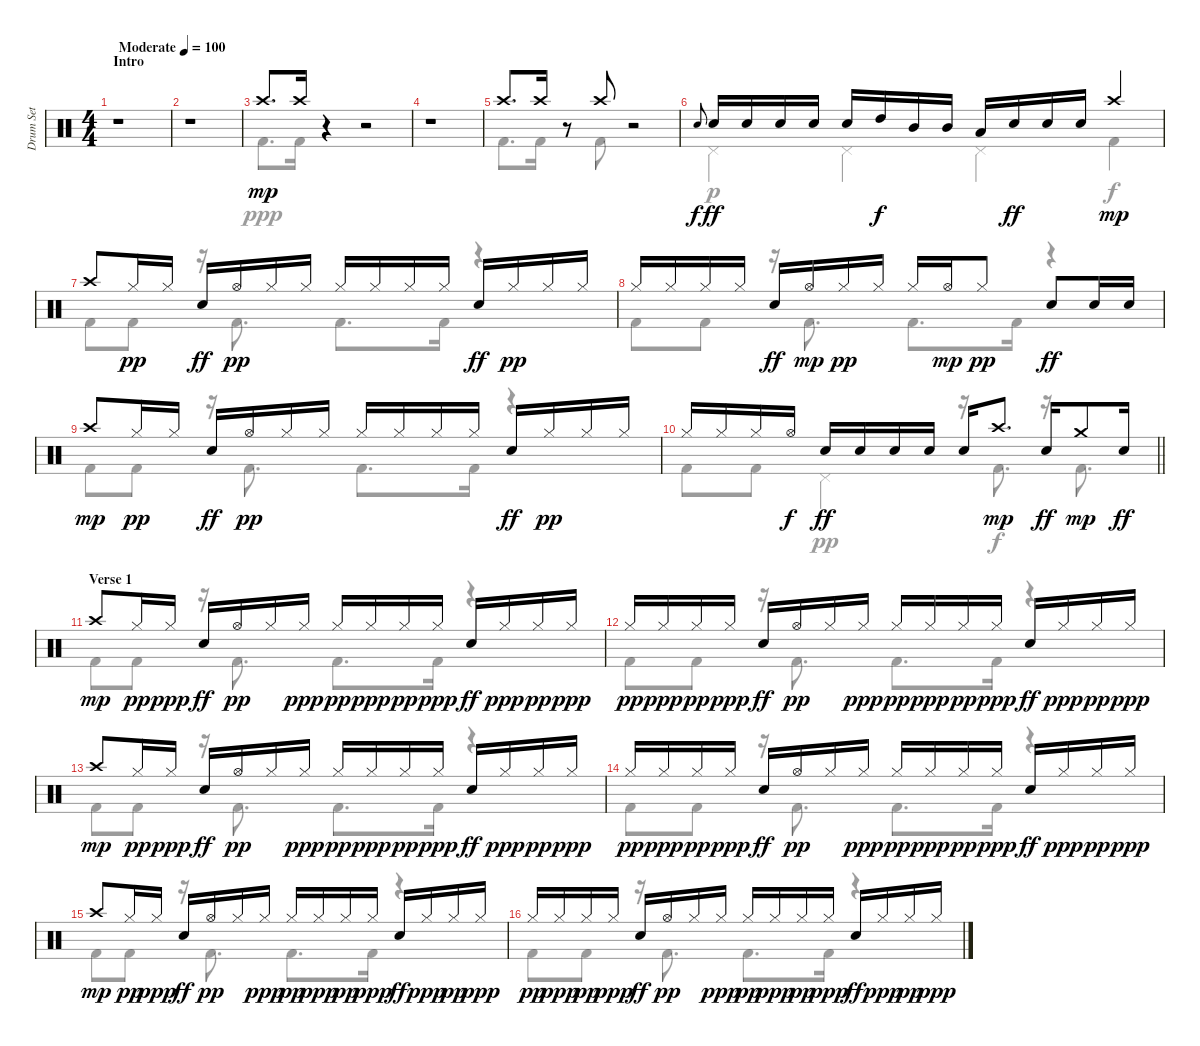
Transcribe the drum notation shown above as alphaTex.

\track ("Drum Set" "Drum Set") {instrument percussion}
\staff {score}
\articulation defaults
\voice
\ts (4 4)
\section ("" "Intro")
\tempo (100 "Moderate")
\clef neutral
\ks c
r.1{dy mp} |
r.1 |
"Crash high (hit)".8{d} "Crash high (hit)".16 r.4 r.2 |
r.1 |
"Crash high (hit)".8{d} "Crash high (hit)".16 r.8 "Crash high (hit)".8 r.2 |
"Electric Snare (hit)".8{gr onbeat dy f} "Electric Snare (hit)".16{dy ff} "Electric Snare (hit)".16 "Electric Snare (hit)".16 "Electric Snare (hit)".16 "Electric Snare (hit)".16 "High Tom (hit)".16{dy f} "Mid Tom (hit)".16 "Mid Tom (hit)".16 "Low Tom (hit)".16 "Electric Snare (hit)".16{dy ff} "Electric Snare (hit)".16 "Electric Snare (hit)".16 "Crash high (hit)".4{dy mp} |
"Crash high (hit)".8 "Hi-Hat (closed)".16{dy pp} "Hi-Hat (closed)".16 "Electric Snare (hit)".16{dy ff} "Hi-Hat (open)".16{dy pp} "Hi-Hat (closed)".16 "Hi-Hat (closed)".16 "Hi-Hat (closed)".16 "Hi-Hat (closed)".16 "Hi-Hat (closed)".16 "Hi-Hat (closed)".16 "Electric Snare (hit)".16{dy ff} "Hi-Hat (closed)".16{dy pp} "Hi-Hat (closed)".16 "Hi-Hat (closed)".16 |
"Hi-Hat (closed)".16 "Hi-Hat (closed)".16 "Hi-Hat (closed)".16 "Hi-Hat (closed)".16 "Electric Snare (hit)".16{dy ff} "Hi-Hat (open)".16{dy mp} "Hi-Hat (closed)".16{dy pp} "Hi-Hat (closed)".16 "Hi-Hat (closed)".16 "Hi-Hat (open)".16{dy mp} "Hi-Hat (closed)".8{dy pp} "Electric Snare (hit)".8{dy ff} "Electric Snare (hit)".16 "Electric Snare (hit)".16 |
"Crash high (hit)".8{dy mp} "Hi-Hat (closed)".16{dy pp} "Hi-Hat (closed)".16 "Electric Snare (hit)".16{dy ff} "Hi-Hat (open)".16{dy pp} "Hi-Hat (closed)".16 "Hi-Hat (closed)".16 "Hi-Hat (closed)".16 "Hi-Hat (closed)".16 "Hi-Hat (closed)".16 "Hi-Hat (closed)".16 "Electric Snare (hit)".16{dy ff} "Hi-Hat (closed)".16{dy pp} "Hi-Hat (closed)".16 "Hi-Hat (closed)".16 |
\barLineRight lightlight "Hi-Hat (closed)".16 "Hi-Hat (closed)".16 "Hi-Hat (closed)".16 "Hi-Hat (open)".16{dy f} "Electric Snare (hit)".16{dy ff} "Electric Snare (hit)".16 "Electric Snare (hit)".16 "Electric Snare (hit)".16 "Electric Snare (hit)".16 "Crash high (hit)".8{d dy mp} "Electric Snare (hit)".16{dy ff} "Crash medium (hit)".8{dy mp} "Electric Snare (hit)".16{dy ff}
|
\section ("" "Verse 1")
"Crash high (hit)".8{dy mp} "Hi-Hat (closed)".16{dy pp} "Hi-Hat (closed)".16{dy ppp} "Electric Snare (hit)".16{dy ff} "Hi-Hat (open)".16{dy pp} "Hi-Hat (closed)".16 "Hi-Hat (closed)".16{dy ppp} "Hi-Hat (closed)".16{dy pp} "Hi-Hat (closed)".16{dy ppp} "Hi-Hat (closed)".16{dy pp} "Hi-Hat (closed)".16{dy ppp} "Electric Snare (hit)".16{dy ff} "Hi-Hat (closed)".16{dy ppp} "Hi-Hat (closed)".16{dy pp} "Hi-Hat (closed)".16{dy ppp} |
"Hi-Hat (closed)".16{dy pp} "Hi-Hat (closed)".16{dy ppp} "Hi-Hat (closed)".16{dy pp} "Hi-Hat (closed)".16{dy ppp} "Electric Snare (hit)".16{dy ff} "Hi-Hat (open)".16{dy pp} "Hi-Hat (closed)".16 "Hi-Hat (closed)".16{dy ppp} "Hi-Hat (closed)".16{dy pp} "Hi-Hat (closed)".16{dy ppp} "Hi-Hat (closed)".16{dy pp} "Hi-Hat (closed)".16{dy ppp} "Electric Snare (hit)".16{dy ff} "Hi-Hat (closed)".16{dy ppp} "Hi-Hat (closed)".16{dy pp} "Hi-Hat (closed)".16{dy ppp} |
"Crash high (hit)".8{dy mp} "Hi-Hat (closed)".16{dy pp} "Hi-Hat (closed)".16{dy ppp} "Electric Snare (hit)".16{dy ff} "Hi-Hat (open)".16{dy pp} "Hi-Hat (closed)".16 "Hi-Hat (closed)".16{dy ppp} "Hi-Hat (closed)".16{dy pp} "Hi-Hat (closed)".16{dy ppp} "Hi-Hat (closed)".16{dy pp} "Hi-Hat (closed)".16{dy ppp} "Electric Snare (hit)".16{dy ff} "Hi-Hat (closed)".16{dy ppp} "Hi-Hat (closed)".16{dy pp} "Hi-Hat (closed)".16{dy ppp} |
"Hi-Hat (closed)".16{dy pp} "Hi-Hat (closed)".16{dy ppp} "Hi-Hat (closed)".16{dy pp} "Hi-Hat (closed)".16{dy ppp} "Electric Snare (hit)".16{dy ff} "Hi-Hat (open)".16{dy pp} "Hi-Hat (closed)".16 "Hi-Hat (closed)".16{dy ppp} "Hi-Hat (closed)".16{dy pp} "Hi-Hat (closed)".16{dy ppp} "Hi-Hat (closed)".16{dy pp} "Hi-Hat (closed)".16{dy ppp} "Electric Snare (hit)".16{dy ff} "Hi-Hat (closed)".16{dy ppp} "Hi-Hat (closed)".16{dy pp} "Hi-Hat (closed)".16{dy ppp} |
"Crash high (hit)".8{dy mp} "Hi-Hat (closed)".16{dy pp} "Hi-Hat (closed)".16{dy ppp} "Electric Snare (hit)".16{dy ff} "Hi-Hat (open)".16{dy pp} "Hi-Hat (closed)".16 "Hi-Hat (closed)".16{dy ppp} "Hi-Hat (closed)".16{dy pp} "Hi-Hat (closed)".16{dy ppp} "Hi-Hat (closed)".16{dy pp} "Hi-Hat (closed)".16{dy ppp} "Electric Snare (hit)".16{dy ff} "Hi-Hat (closed)".16{dy ppp} "Hi-Hat (closed)".16{dy pp} "Hi-Hat (closed)".16{dy ppp} |
"Hi-Hat (closed)".16{dy pp} "Hi-Hat (closed)".16{dy ppp} "Hi-Hat (closed)".16{dy pp} "Hi-Hat (closed)".16{dy ppp} "Electric Snare (hit)".16{dy ff} "Hi-Hat (open)".16{dy pp} "Hi-Hat (closed)".16 "Hi-Hat (closed)".16{dy ppp} "Hi-Hat (closed)".16{dy pp} "Hi-Hat (closed)".16{dy ppp} "Hi-Hat (closed)".16{dy pp} "Hi-Hat (closed)".16{dy ppp} "Electric Snare (hit)".16{dy ff} "Hi-Hat (closed)".16{dy ppp} "Hi-Hat (closed)".16{dy pp} "Hi-Hat (closed)".16{dy ppp}
\voice
\clef neutral
\ottava regular
\simile none
\ks c
|
|
"Kick (hit) 2".8{d} "Kick (hit) 2".16 r.4 r.2 |
|
"Kick (hit) 2".8{d} "Kick (hit) 2".16 r.8 "Kick (hit) 2".8 r.2 |
"Pedal Hi-Hat (hit)".4{dy p} "Pedal Hi-Hat (hit)".4 "Pedal Hi-Hat (hit)".4 "Kick (hit) 2".4{dy f} |
"Kick (hit) 2".8 "Kick (hit) 2".8 r.16 "Kick (hit) 2".8{d} "Kick (hit) 2".8{d} "Kick (hit) 2".16 r.4 |
"Kick (hit) 2".8 "Kick (hit) 2".8 r.16 "Kick (hit) 2".8{d} "Kick (hit) 2".8{d} "Kick (hit) 2".16 r.4 |
"Kick (hit) 2".8 "Kick (hit) 2".8 r.16 "Kick (hit) 2".8{d} "Kick (hit) 2".8{d} "Kick (hit) 2".16 r.4 |
\barLineRight lightlight "Kick (hit) 2".8 "Kick (hit) 2".8 "Pedal Hi-Hat (hit)".4{dy pp}
r.16 "Kick (hit) 2".8{d dy f} r.16 "Kick (hit) 2".8{d} |
"Kick (hit) 2".8 "Kick (hit) 2".8 r.16 "Kick (hit) 2".8{d} "Kick (hit) 2".8{d} "Kick (hit) 2".16 r.4 |
"Kick (hit) 2".8 "Kick (hit) 2".8 r.16 "Kick (hit) 2".8{d} "Kick (hit) 2".8{d} "Kick (hit) 2".16 r.4 |
"Kick (hit) 2".8 "Kick (hit) 2".8 r.16 "Kick (hit) 2".8{d} "Kick (hit) 2".8{d} "Kick (hit) 2".16 r.4 |
"Kick (hit) 2".8 "Kick (hit) 2".8 r.16 "Kick (hit) 2".8{d} "Kick (hit) 2".8{d} "Kick (hit) 2".16 r.4 |
"Kick (hit) 2".8 "Kick (hit) 2".8 r.16 "Kick (hit) 2".8{d} "Kick (hit) 2".8{d} "Kick (hit) 2".16 r.4 |
"Kick (hit) 2".8 "Kick (hit) 2".8 r.16 "Kick (hit) 2".8{d} "Kick (hit) 2".8{d} "Kick (hit) 2".16 r.4
